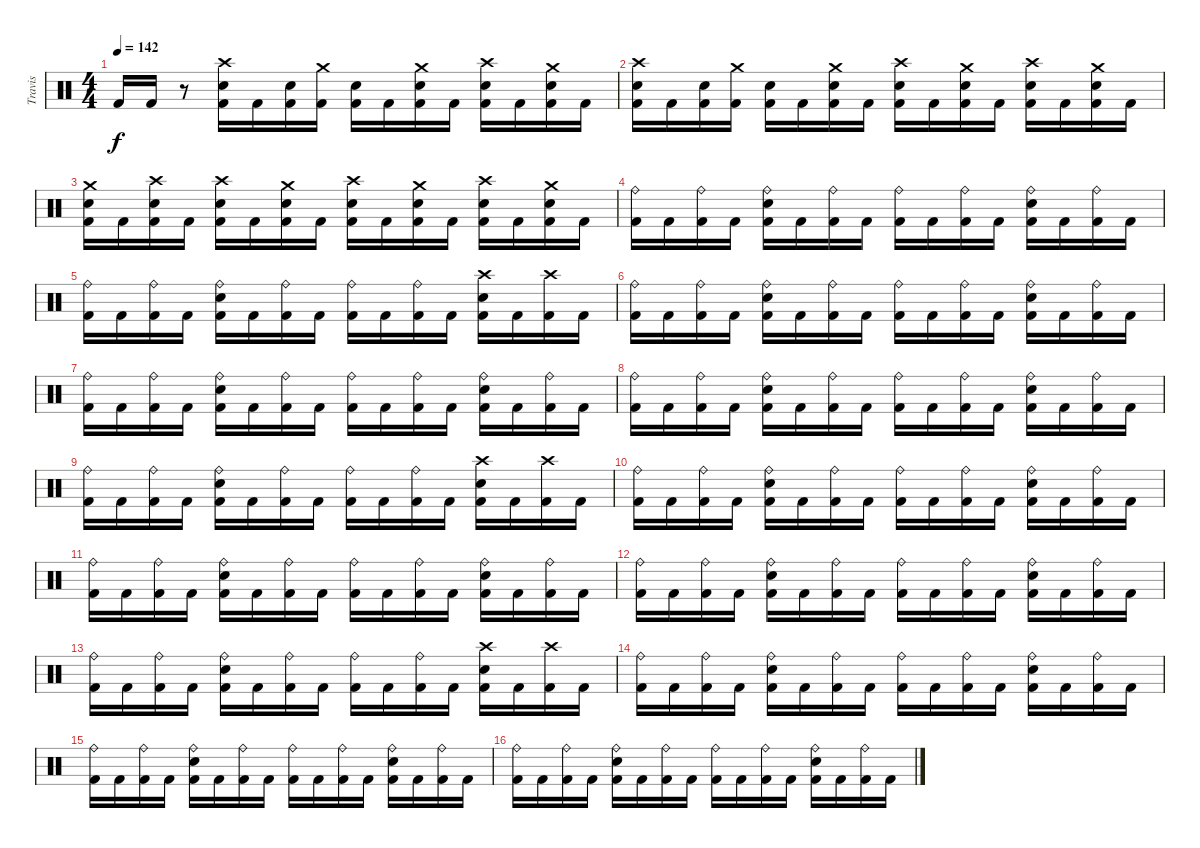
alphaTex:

\track ("Travis" "Travis") {instrument percussion}
\staff {score}
\articulation defaults
\ts (4 4)
\tempo 142
\clef neutral
\ks c "Kick (hit) 2".16{dy f} "Kick (hit) 2".16
r.8 ("Crash high (hit)" "Snare (hit) 2" "Kick (hit) 2").16 "Kick (hit) 2".16 ("Snare (hit) 2" "Kick (hit) 2").16 ("Crash medium (hit)" "Kick (hit) 2").16 ("Snare (hit) 2" "Kick (hit) 2").16 "Kick (hit) 2".16 ("Crash medium (hit)" "Snare (hit) 2" "Kick (hit) 2").16 "Kick (hit) 2".16 ("Crash high (hit)" "Snare (hit) 2" "Kick (hit) 2").16 "Kick (hit) 2".16 ("Crash medium (hit)" "Snare (hit) 2" "Kick (hit) 2").16 "Kick (hit) 2".16 |
("Crash high (hit)" "Snare (hit) 2" "Kick (hit) 2").16 "Kick (hit) 2".16 ("Snare (hit) 2" "Kick (hit) 2").16 ("Crash medium (hit)" "Kick (hit) 2").16 ("Snare (hit) 2" "Kick (hit) 2").16 "Kick (hit) 2".16 ("Crash medium (hit)" "Snare (hit) 2" "Kick (hit) 2").16 "Kick (hit) 2".16 ("Crash high (hit)" "Snare (hit) 2" "Kick (hit) 2").16 "Kick (hit) 2".16 ("Crash medium (hit)" "Snare (hit) 2" "Kick (hit) 2").16 "Kick (hit) 2".16 ("Crash high (hit)" "Snare (hit) 2" "Kick (hit) 2").16 "Kick (hit) 2".16 ("Crash medium (hit)" "Snare (hit) 2" "Kick (hit) 2").16 "Kick (hit) 2".16 |
("Crash medium (hit)" "Snare (hit) 2" "Kick (hit) 2").16 "Kick (hit) 2".16 ("Crash high (hit)" "Snare (hit) 2" "Kick (hit) 2").16 "Kick (hit) 2".16 ("Crash high (hit)" "Snare (hit) 2" "Kick (hit) 2").16 "Kick (hit) 2".16 ("Crash medium (hit)" "Snare (hit) 2" "Kick (hit) 2").16 "Kick (hit) 2".16 ("Crash high (hit)" "Snare (hit) 2" "Kick (hit) 2").16 "Kick (hit) 2".16 ("Crash medium (hit)" "Snare (hit) 2" "Kick (hit) 2").16 "Kick (hit) 2".16 ("Crash high (hit)" "Snare (hit) 2" "Kick (hit) 2").16 "Kick (hit) 2".16 ("Crash medium (hit)" "Snare (hit) 2" "Kick (hit) 2").16 "Kick (hit) 2".16 |
("Ride (bell)" "Kick (hit) 2").16 "Kick (hit) 2".16 ("Ride (bell)" "Kick (hit) 2").16 "Kick (hit) 2".16 ("Ride (bell)" "Snare (hit) 2" "Kick (hit) 2").16 "Kick (hit) 2".16 ("Ride (bell)" "Kick (hit) 2").16 "Kick (hit) 2".16 ("Ride (bell)" "Kick (hit) 2").16 "Kick (hit) 2".16 ("Ride (bell)" "Kick (hit) 2").16 "Kick (hit) 2".16 ("Ride (bell)" "Snare (hit) 2" "Kick (hit) 2").16 "Kick (hit) 2".16 ("Ride (bell)" "Kick (hit) 2").16 "Kick (hit) 2".16 |
("Ride (bell)" "Kick (hit) 2").16 "Kick (hit) 2".16 ("Ride (bell)" "Kick (hit) 2").16 "Kick (hit) 2".16 ("Ride (bell)" "Snare (hit) 2" "Kick (hit) 2").16 "Kick (hit) 2".16 ("Ride (bell)" "Kick (hit) 2").16 "Kick (hit) 2".16 ("Ride (bell)" "Kick (hit) 2").16 "Kick (hit) 2".16 ("Ride (bell)" "Kick (hit) 2").16 "Kick (hit) 2".16 ("Crash high (hit)" "Snare (hit) 2" "Kick (hit) 2").16 "Kick (hit) 2".16 ("Crash high (hit)" "Kick (hit) 2").16 "Kick (hit) 2".16 |
("Ride (bell)" "Kick (hit) 2").16 "Kick (hit) 2".16 ("Ride (bell)" "Kick (hit) 2").16 "Kick (hit) 2".16 ("Ride (bell)" "Snare (hit) 2" "Kick (hit) 2").16 "Kick (hit) 2".16 ("Ride (bell)" "Kick (hit) 2").16 "Kick (hit) 2".16 ("Ride (bell)" "Kick (hit) 2").16 "Kick (hit) 2".16 ("Ride (bell)" "Kick (hit) 2").16 "Kick (hit) 2".16 ("Ride (bell)" "Snare (hit) 2" "Kick (hit) 2").16 "Kick (hit) 2".16 ("Ride (bell)" "Kick (hit) 2").16 "Kick (hit) 2".16 |
("Ride (bell)" "Kick (hit) 2").16 "Kick (hit) 2".16 ("Ride (bell)" "Kick (hit) 2").16 "Kick (hit) 2".16 ("Ride (bell)" "Snare (hit) 2" "Kick (hit) 2").16 "Kick (hit) 2".16 ("Ride (bell)" "Kick (hit) 2").16 "Kick (hit) 2".16 ("Ride (bell)" "Kick (hit) 2").16 "Kick (hit) 2".16 ("Ride (bell)" "Kick (hit) 2").16 "Kick (hit) 2".16 ("Ride (bell)" "Snare (hit) 2" "Kick (hit) 2").16 "Kick (hit) 2".16 ("Ride (bell)" "Kick (hit) 2").16 "Kick (hit) 2".16 |
("Ride (bell)" "Kick (hit) 2").16 "Kick (hit) 2".16 ("Ride (bell)" "Kick (hit) 2").16 "Kick (hit) 2".16 ("Ride (bell)" "Snare (hit) 2" "Kick (hit) 2").16 "Kick (hit) 2".16 ("Ride (bell)" "Kick (hit) 2").16 "Kick (hit) 2".16 ("Ride (bell)" "Kick (hit) 2").16 "Kick (hit) 2".16 ("Ride (bell)" "Kick (hit) 2").16 "Kick (hit) 2".16 ("Ride (bell)" "Snare (hit) 2" "Kick (hit) 2").16 "Kick (hit) 2".16 ("Ride (bell)" "Kick (hit) 2").16 "Kick (hit) 2".16 |
("Ride (bell)" "Kick (hit) 2").16 "Kick (hit) 2".16 ("Ride (bell)" "Kick (hit) 2").16 "Kick (hit) 2".16 ("Ride (bell)" "Snare (hit) 2" "Kick (hit) 2").16 "Kick (hit) 2".16 ("Ride (bell)" "Kick (hit) 2").16 "Kick (hit) 2".16 ("Ride (bell)" "Kick (hit) 2").16 "Kick (hit) 2".16 ("Ride (bell)" "Kick (hit) 2").16 "Kick (hit) 2".16 ("Crash high (hit)" "Snare (hit) 2" "Kick (hit) 2").16 "Kick (hit) 2".16 ("Crash high (hit)" "Kick (hit) 2").16 "Kick (hit) 2".16 |
("Ride (bell)" "Kick (hit) 2").16 "Kick (hit) 2".16 ("Ride (bell)" "Kick (hit) 2").16 "Kick (hit) 2".16 ("Ride (bell)" "Snare (hit) 2" "Kick (hit) 2").16 "Kick (hit) 2".16 ("Ride (bell)" "Kick (hit) 2").16 "Kick (hit) 2".16 ("Ride (bell)" "Kick (hit) 2").16 "Kick (hit) 2".16 ("Ride (bell)" "Kick (hit) 2").16 "Kick (hit) 2".16 ("Ride (bell)" "Snare (hit) 2" "Kick (hit) 2").16 "Kick (hit) 2".16 ("Ride (bell)" "Kick (hit) 2").16 "Kick (hit) 2".16 |
("Ride (bell)" "Kick (hit) 2").16 "Kick (hit) 2".16 ("Ride (bell)" "Kick (hit) 2").16 "Kick (hit) 2".16 ("Ride (bell)" "Snare (hit) 2" "Kick (hit) 2").16 "Kick (hit) 2".16 ("Ride (bell)" "Kick (hit) 2").16 "Kick (hit) 2".16 ("Ride (bell)" "Kick (hit) 2").16 "Kick (hit) 2".16 ("Ride (bell)" "Kick (hit) 2").16 "Kick (hit) 2".16 ("Ride (bell)" "Snare (hit) 2" "Kick (hit) 2").16 "Kick (hit) 2".16 ("Ride (bell)" "Kick (hit) 2").16 "Kick (hit) 2".16 |
("Ride (bell)" "Kick (hit) 2").16 "Kick (hit) 2".16 ("Ride (bell)" "Kick (hit) 2").16 "Kick (hit) 2".16 ("Ride (bell)" "Snare (hit) 2" "Kick (hit) 2").16 "Kick (hit) 2".16 ("Ride (bell)" "Kick (hit) 2").16 "Kick (hit) 2".16 ("Ride (bell)" "Kick (hit) 2").16 "Kick (hit) 2".16 ("Ride (bell)" "Kick (hit) 2").16 "Kick (hit) 2".16 ("Ride (bell)" "Snare (hit) 2" "Kick (hit) 2").16 "Kick (hit) 2".16 ("Ride (bell)" "Kick (hit) 2").16 "Kick (hit) 2".16 |
("Ride (bell)" "Kick (hit) 2").16 "Kick (hit) 2".16 ("Ride (bell)" "Kick (hit) 2").16 "Kick (hit) 2".16 ("Ride (bell)" "Snare (hit) 2" "Kick (hit) 2").16 "Kick (hit) 2".16 ("Ride (bell)" "Kick (hit) 2").16 "Kick (hit) 2".16 ("Ride (bell)" "Kick (hit) 2").16 "Kick (hit) 2".16 ("Ride (bell)" "Kick (hit) 2").16 "Kick (hit) 2".16 ("Crash high (hit)" "Snare (hit) 2" "Kick (hit) 2").16 "Kick (hit) 2".16 ("Crash high (hit)" "Kick (hit) 2").16 "Kick (hit) 2".16 |
("Ride (bell)" "Kick (hit) 2").16 "Kick (hit) 2".16 ("Ride (bell)" "Kick (hit) 2").16 "Kick (hit) 2".16 ("Ride (bell)" "Snare (hit) 2" "Kick (hit) 2").16 "Kick (hit) 2".16 ("Ride (bell)" "Kick (hit) 2").16 "Kick (hit) 2".16 ("Ride (bell)" "Kick (hit) 2").16 "Kick (hit) 2".16 ("Ride (bell)" "Kick (hit) 2").16 "Kick (hit) 2".16 ("Ride (bell)" "Snare (hit) 2" "Kick (hit) 2").16 "Kick (hit) 2".16 ("Ride (bell)" "Kick (hit) 2").16 "Kick (hit) 2".16 |
("Ride (bell)" "Kick (hit) 2").16 "Kick (hit) 2".16 ("Ride (bell)" "Kick (hit) 2").16 "Kick (hit) 2".16 ("Ride (bell)" "Snare (hit) 2" "Kick (hit) 2").16 "Kick (hit) 2".16 ("Ride (bell)" "Kick (hit) 2").16 "Kick (hit) 2".16 ("Ride (bell)" "Kick (hit) 2").16 "Kick (hit) 2".16 ("Ride (bell)" "Kick (hit) 2").16 "Kick (hit) 2".16 ("Ride (bell)" "Snare (hit) 2" "Kick (hit) 2").16 "Kick (hit) 2".16 ("Ride (bell)" "Kick (hit) 2").16 "Kick (hit) 2".16 |
("Ride (bell)" "Kick (hit) 2").16 "Kick (hit) 2".16 ("Ride (bell)" "Kick (hit) 2").16 "Kick (hit) 2".16 ("Ride (bell)" "Snare (hit) 2" "Kick (hit) 2").16 "Kick (hit) 2".16 ("Ride (bell)" "Kick (hit) 2").16 "Kick (hit) 2".16 ("Ride (bell)" "Kick (hit) 2").16 "Kick (hit) 2".16 ("Ride (bell)" "Kick (hit) 2").16 "Kick (hit) 2".16 ("Ride (bell)" "Snare (hit) 2" "Kick (hit) 2").16 "Kick (hit) 2".16 ("Ride (bell)" "Kick (hit) 2").16 "Kick (hit) 2".16
